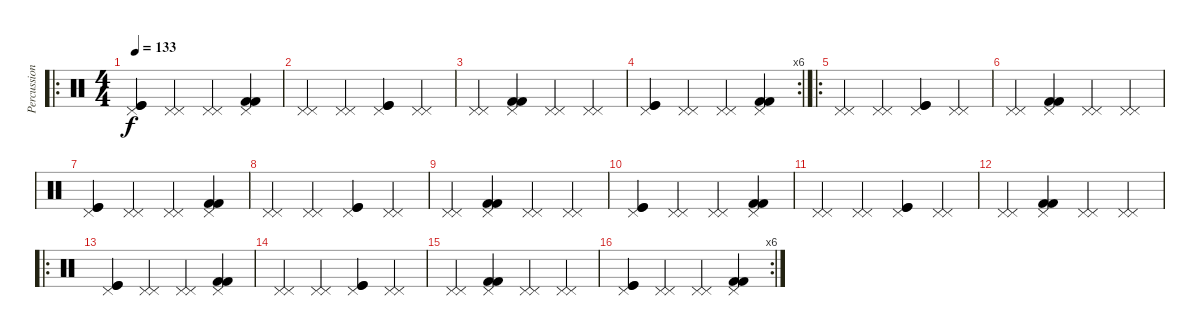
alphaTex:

\track ("Percussions" "Percussion") {instrument percussion}
\staff {score}
\articulation defaults
\ro
\ts (4 4)
\tempo 133
\clef neutral
\ks c
("Pedal Hi-Hat (hit)" "Kick (hit)" "Kick (hit)").4{dy f} ("Pedal Hi-Hat (hit)" "Pedal Hi-Hat (hit)").4 ("Pedal Hi-Hat (hit)" "Pedal Hi-Hat (hit)").4 ("Pedal Hi-Hat (hit)" "Kick (hit) 2" "Kick (hit) 2").4 |
("Pedal Hi-Hat (hit)" "Pedal Hi-Hat (hit)").4 ("Pedal Hi-Hat (hit)" "Pedal Hi-Hat (hit)").4 ("Pedal Hi-Hat (hit)" "Kick (hit)" "Kick (hit)").4 ("Pedal Hi-Hat (hit)" "Pedal Hi-Hat (hit)").4 |
("Pedal Hi-Hat (hit)" "Pedal Hi-Hat (hit)").4 ("Pedal Hi-Hat (hit)" "Kick (hit) 2" "Kick (hit) 2").4 ("Pedal Hi-Hat (hit)" "Pedal Hi-Hat (hit)").4 ("Pedal Hi-Hat (hit)" "Pedal Hi-Hat (hit)").4 |
\rc 6
("Pedal Hi-Hat (hit)" "Kick (hit)" "Kick (hit)").4 ("Pedal Hi-Hat (hit)" "Pedal Hi-Hat (hit)").4 ("Pedal Hi-Hat (hit)" "Pedal Hi-Hat (hit)").4 ("Pedal Hi-Hat (hit)" "Kick (hit) 2" "Kick (hit) 2").4 |
\ro
("Pedal Hi-Hat (hit)" "Pedal Hi-Hat (hit)").4 ("Pedal Hi-Hat (hit)" "Pedal Hi-Hat (hit)").4 ("Pedal Hi-Hat (hit)" "Kick (hit)" "Kick (hit)").4 ("Pedal Hi-Hat (hit)" "Pedal Hi-Hat (hit)").4 |
("Pedal Hi-Hat (hit)" "Pedal Hi-Hat (hit)").4 ("Pedal Hi-Hat (hit)" "Kick (hit) 2" "Kick (hit) 2").4 ("Pedal Hi-Hat (hit)" "Pedal Hi-Hat (hit)").4 ("Pedal Hi-Hat (hit)" "Pedal Hi-Hat (hit)").4 |
("Pedal Hi-Hat (hit)" "Kick (hit)" "Kick (hit)").4 ("Pedal Hi-Hat (hit)" "Pedal Hi-Hat (hit)").4 ("Pedal Hi-Hat (hit)" "Pedal Hi-Hat (hit)").4 ("Pedal Hi-Hat (hit)" "Kick (hit) 2" "Kick (hit) 2").4 |
("Pedal Hi-Hat (hit)" "Pedal Hi-Hat (hit)").4 ("Pedal Hi-Hat (hit)" "Pedal Hi-Hat (hit)").4 ("Pedal Hi-Hat (hit)" "Kick (hit)" "Kick (hit)").4 ("Pedal Hi-Hat (hit)" "Pedal Hi-Hat (hit)").4 |
("Pedal Hi-Hat (hit)" "Pedal Hi-Hat (hit)").4 ("Pedal Hi-Hat (hit)" "Kick (hit) 2" "Kick (hit) 2").4 ("Pedal Hi-Hat (hit)" "Pedal Hi-Hat (hit)").4 ("Pedal Hi-Hat (hit)" "Pedal Hi-Hat (hit)").4 |
("Pedal Hi-Hat (hit)" "Kick (hit)" "Kick (hit)").4 ("Pedal Hi-Hat (hit)" "Pedal Hi-Hat (hit)").4 ("Pedal Hi-Hat (hit)" "Pedal Hi-Hat (hit)").4 ("Pedal Hi-Hat (hit)" "Kick (hit) 2" "Kick (hit) 2").4 |
("Pedal Hi-Hat (hit)" "Pedal Hi-Hat (hit)").4 ("Pedal Hi-Hat (hit)" "Pedal Hi-Hat (hit)").4 ("Pedal Hi-Hat (hit)" "Kick (hit)" "Kick (hit)").4 ("Pedal Hi-Hat (hit)" "Pedal Hi-Hat (hit)").4 |
("Pedal Hi-Hat (hit)" "Pedal Hi-Hat (hit)").4 ("Pedal Hi-Hat (hit)" "Kick (hit) 2" "Kick (hit) 2").4 ("Pedal Hi-Hat (hit)" "Pedal Hi-Hat (hit)").4 ("Pedal Hi-Hat (hit)" "Pedal Hi-Hat (hit)").4 |
\ro
("Pedal Hi-Hat (hit)" "Kick (hit)" "Kick (hit)").4 ("Pedal Hi-Hat (hit)" "Pedal Hi-Hat (hit)").4 ("Pedal Hi-Hat (hit)" "Pedal Hi-Hat (hit)").4 ("Pedal Hi-Hat (hit)" "Kick (hit) 2" "Kick (hit) 2").4 |
("Pedal Hi-Hat (hit)" "Pedal Hi-Hat (hit)").4 ("Pedal Hi-Hat (hit)" "Pedal Hi-Hat (hit)").4 ("Pedal Hi-Hat (hit)" "Kick (hit)" "Kick (hit)").4 ("Pedal Hi-Hat (hit)" "Pedal Hi-Hat (hit)").4 |
("Pedal Hi-Hat (hit)" "Pedal Hi-Hat (hit)").4 ("Pedal Hi-Hat (hit)" "Kick (hit) 2" "Kick (hit) 2").4 ("Pedal Hi-Hat (hit)" "Pedal Hi-Hat (hit)").4 ("Pedal Hi-Hat (hit)" "Pedal Hi-Hat (hit)").4 |
\rc 6
("Pedal Hi-Hat (hit)" "Kick (hit)" "Kick (hit)").4 ("Pedal Hi-Hat (hit)" "Pedal Hi-Hat (hit)").4 ("Pedal Hi-Hat (hit)" "Pedal Hi-Hat (hit)").4 ("Pedal Hi-Hat (hit)" "Kick (hit) 2" "Kick (hit) 2").4
